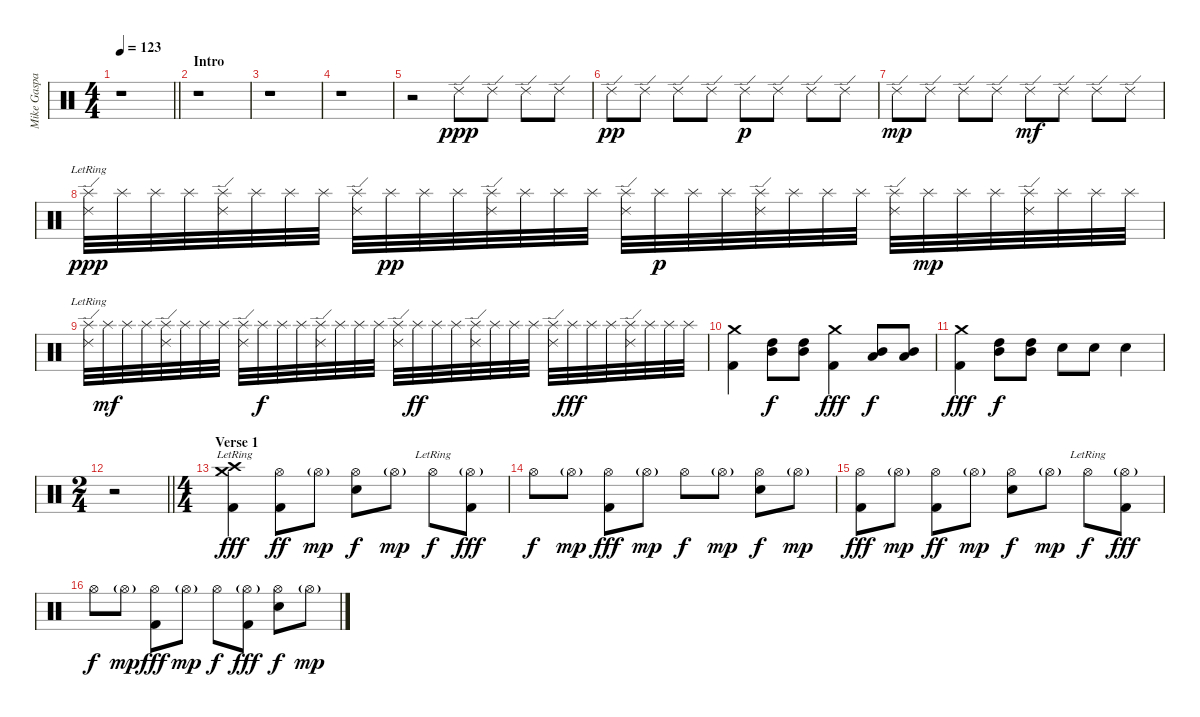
\track ("Mike Gaspar (Drums)" "Mike Gaspa") {instrument percussion}
\staff {score}
\articulation defaults
\ts (4 4)
\tempo 123
\clef neutral
\barLineRight lightlight
\ks c
r.1{dy ppp} |
\section ("" "Intro")
r.1 |
r.1 |
r.1 |
r.2 "Ride (edge) 2".8{txt ""} "Ride (edge) 2".8 "Ride (edge) 2".8 "Ride (edge) 2".8 |
"Ride (edge) 2".8{dy pp} "Ride (edge) 2".8 "Ride (edge) 2".8 "Ride (edge) 2".8 "Ride (edge) 2".8{dy p} "Ride (edge) 2".8 "Ride (edge) 2".8 "Ride (edge) 2".8 |
"Ride (edge) 2".8{dy mp} "Ride (edge) 2".8 "Ride (edge) 2".8 "Ride (edge) 2".8 "Ride (edge) 2".8{dy mf} "Ride (edge) 2".8 "Ride (edge) 2".8 "Ride (edge) 2".8 |
("Splash (hit)" "Ride (edge) 2"{lr}).32{dy ppp} "Splash (hit)".32 "Splash (hit)".32 "Splash (hit)".32 ("Splash (hit)" "Ride (edge) 2").32 "Splash (hit)".32 "Splash (hit)".32 "Splash (hit)".32 ("Splash (hit)" "Ride (edge) 2").32 "Splash (hit)".32{dy pp} "Splash (hit)".32 "Splash (hit)".32 ("Splash (hit)" "Ride (edge) 2").32 "Splash (hit)".32 "Splash (hit)".32 "Splash (hit)".32 ("Splash (hit)" "Ride (edge) 2").32 "Splash (hit)".32{dy p} "Splash (hit)".32 "Splash (hit)".32 ("Splash (hit)" "Ride (edge) 2").32 "Splash (hit)".32 "Splash (hit)".32 "Splash (hit)".32 ("Splash (hit)" "Ride (edge) 2").32 "Splash (hit)".32{dy mp} "Splash (hit)".32 "Splash (hit)".32 ("Splash (hit)" "Ride (edge) 2").32 "Splash (hit)".32 "Splash (hit)".32 "Splash (hit)".32 |
("Splash (hit)" "Ride (edge) 2"{lr}).32 "Splash (hit)".32{dy mf} "Splash (hit)".32 "Splash (hit)".32 ("Splash (hit)" "Ride (edge) 2").32 "Splash (hit)".32 "Splash (hit)".32 "Splash (hit)".32 ("Splash (hit)" "Ride (edge) 2").32 "Splash (hit)".32{dy f} "Splash (hit)".32 "Splash (hit)".32 ("Splash (hit)" "Ride (edge) 2").32 "Splash (hit)".32 "Splash (hit)".32 "Splash (hit)".32 ("Splash (hit)" "Ride (edge) 2").32 "Splash (hit)".32{dy ff} "Splash (hit)".32 "Splash (hit)".32 ("Splash (hit)" "Ride (edge) 2").32 "Splash (hit)".32 "Splash (hit)".32 "Splash (hit)".32 ("Splash (hit)" "Ride (edge) 2").32 "Splash (hit)".32{dy fff} "Splash (hit)".32 "Splash (hit)".32 ("Splash (hit)" "Ride (edge) 2").32 "Splash (hit)".32 "Splash (hit)".32 "Splash (hit)".32 |
("Crash medium (hit)" "Kick (hit) 2").4 ("High Tom (hit)" "Mid Tom (hit)").8{dy f} ("High Tom (hit)" "Mid Tom (hit)").8 ("Crash medium (hit)" "Kick (hit) 2").4{dy fff} ("Mid Tom (hit)" "Low Tom (hit)").8{dy f} ("Mid Tom (hit)" "Low Tom (hit)").8 |
("Crash medium (hit)" "Kick (hit) 2").4{dy fff} ("High Tom (hit)" "Mid Tom (hit)").8{dy f} ("High Tom (hit)" "Mid Tom (hit)").8 "Snare (hit) 2".8 "Snare (hit) 2".8 "Snare (hit) 2".4 |
\ts (2 4)
\barLineRight lightlight
r.2 |
\ts (4 4)
\section ("" "Verse 1")
("Crash medium (hit)"{lr} "Crash high (hit)"{lr} "Kick (hit) 2").4{dy fff} ("Hi-Hat (open)" "Kick (hit) 2").8{dy ff} "Hi-Hat (open)"{g}.8{dy mp} ("Hi-Hat (open)" "Snare (hit) 2").8{dy f} "Hi-Hat (open)"{g}.8{dy mp} "Hi-Hat (open)"{lr}.8{dy f} ("Hi-Hat (open)"{g} "Kick (hit) 2").8{dy fff} |
"Hi-Hat (open)".8{dy f} "Hi-Hat (open)"{g}.8{dy mp} ("Hi-Hat (open)" "Kick (hit) 2").8{dy fff} "Hi-Hat (open)"{g}.8{dy mp} "Hi-Hat (open)".8{dy f} "Hi-Hat (open)"{g}.8{dy mp} ("Hi-Hat (open)" "Snare (hit) 2").8{dy f} "Hi-Hat (open)"{g}.8{dy mp} |
("Hi-Hat (open)" "Kick (hit) 2").8{dy fff} "Hi-Hat (open)"{g}.8{dy mp} ("Hi-Hat (open)" "Kick (hit) 2").8{dy ff} "Hi-Hat (open)"{g}.8{dy mp} ("Hi-Hat (open)" "Snare (hit) 2").8{dy f} "Hi-Hat (open)"{g}.8{dy mp} "Hi-Hat (open)"{lr}.8{dy f} ("Hi-Hat (open)"{g} "Kick (hit) 2").8{dy fff} |
"Hi-Hat (open)".8{dy f} "Hi-Hat (open)"{g}.8{dy mp} ("Hi-Hat (open)" "Kick (hit) 2").8{dy fff} "Hi-Hat (open)"{g}.8{dy mp} "Hi-Hat (open)".8{dy f} ("Hi-Hat (open)"{g} "Kick (hit) 2").8{dy fff} ("Hi-Hat (open)" "Snare (hit) 2").8{dy f} "Hi-Hat (open)"{g}.8{dy mp}
